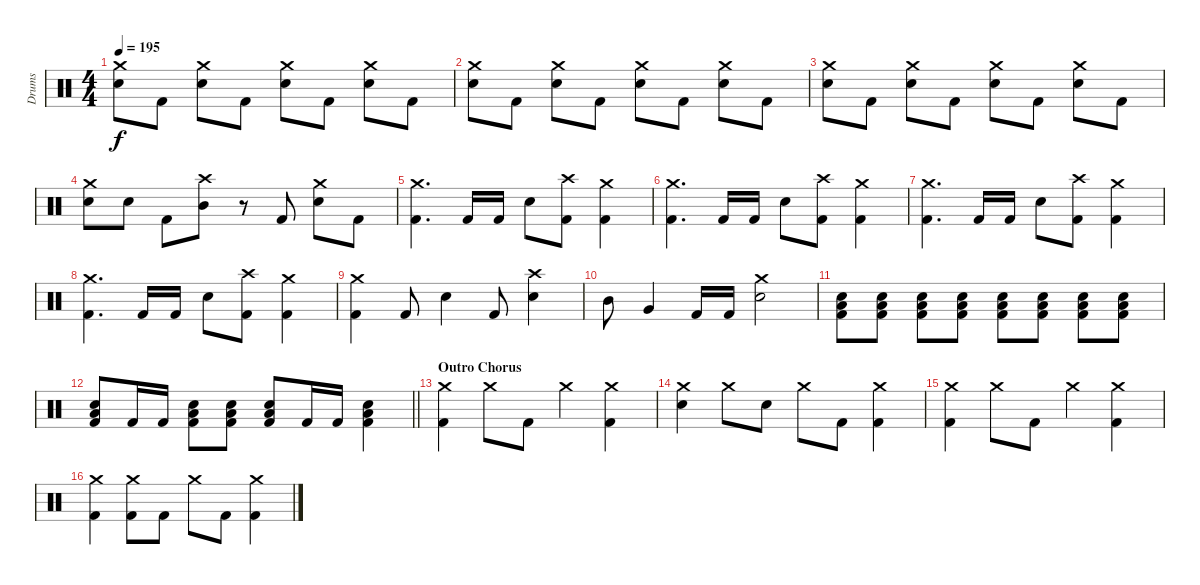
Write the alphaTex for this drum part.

\track ("Drums" "Drums") {instrument percussion}
\staff {score}
\articulation defaults
\ts (4 4)
\tempo 195
\clef neutral
\ks c
("Crash medium (hit)" "Snare (hit) 2").8{dy f} "Kick (hit) 2".8 ("Crash medium (hit)" "Snare (hit) 2").8 "Kick (hit) 2".8 ("Crash medium (hit)" "Snare (hit) 2").8 "Kick (hit) 2".8 ("Crash medium (hit)" "Snare (hit) 2").8 "Kick (hit) 2".8 |
("Crash medium (hit)" "Snare (hit) 2").8 "Kick (hit) 2".8 ("Crash medium (hit)" "Snare (hit) 2").8 "Kick (hit) 2".8 ("Crash medium (hit)" "Snare (hit) 2").8 "Kick (hit) 2".8 ("Crash medium (hit)" "Snare (hit) 2").8 "Kick (hit) 2".8 |
("Crash medium (hit)" "Snare (hit) 2").8 "Kick (hit) 2".8 ("Crash medium (hit)" "Snare (hit) 2").8 "Kick (hit) 2".8 ("Crash medium (hit)" "Snare (hit) 2").8 "Kick (hit) 2".8 ("Crash medium (hit)" "Snare (hit) 2").8 "Kick (hit) 2".8 |
("Crash medium (hit)" "Snare (hit) 2").8 "Snare (hit) 2".8 "Kick (hit) 2".8 ("Crash high (hit)" "Mid Tom (hit)").8 r.8 "Kick (hit) 2".8 ("Crash medium (hit)" "Snare (hit) 2").8 "Kick (hit) 2".8 |
("Crash medium (hit)" "Kick (hit) 2").4{d} "Kick (hit) 2".16 "Kick (hit) 2".16 "Snare (hit) 2".8 ("Crash high (hit)" "Kick (hit) 2").8 ("Crash medium (hit)" "Kick (hit) 2").4 |
("Crash medium (hit)" "Kick (hit) 2").4{d} "Kick (hit) 2".16 "Kick (hit) 2".16 "Snare (hit) 2".8 ("Crash high (hit)" "Kick (hit) 2").8 ("Crash medium (hit)" "Kick (hit) 2").4 |
("Crash medium (hit)" "Kick (hit) 2").4{d} "Kick (hit) 2".16 "Kick (hit) 2".16 "Snare (hit) 2".8 ("Crash high (hit)" "Kick (hit) 2").8 ("Crash medium (hit)" "Kick (hit) 2").4 |
("Crash medium (hit)" "Kick (hit) 2").4{d} "Kick (hit) 2".16 "Kick (hit) 2".16 "Snare (hit) 2".8 ("Crash high (hit)" "Kick (hit) 2").8 ("Crash medium (hit)" "Kick (hit) 2").4 |
("Crash medium (hit)" "Kick (hit) 2").4 "Kick (hit) 2".8 "Snare (hit) 2".4 "Kick (hit) 2".8 ("Crash high (hit)" "Snare (hit) 2").4 |
"Mid Tom (hit)".8 "Very Low Tom (hit)".4 "Kick (hit) 2".16 "Kick (hit) 2".16 ("Crash medium (hit)" "Snare (hit) 2").2 |
("Snare (hit) 2" "Low Floor Tom (hit)" "Kick (hit) 2").8{volume 6} ("Snare (hit) 2" "Low Floor Tom (hit)" "Kick (hit) 2").8{volume 14} ("Snare (hit) 2" "Low Floor Tom (hit)" "Kick (hit) 2").8 ("Snare (hit) 2" "Low Floor Tom (hit)" "Kick (hit) 2").8 ("Snare (hit) 2" "Low Floor Tom (hit)" "Kick (hit) 2").8 ("Snare (hit) 2" "Low Floor Tom (hit)" "Kick (hit) 2").8 ("Snare (hit) 2" "Low Floor Tom (hit)" "Kick (hit) 2").8 ("Snare (hit) 2" "Low Floor Tom (hit)" "Kick (hit) 2").8 |
\barLineRight lightlight
("Snare (hit) 2" "Low Floor Tom (hit)" "Kick (hit) 2").8 "Kick (hit) 2".16 "Kick (hit) 2".16 ("Snare (hit) 2" "Low Floor Tom (hit)" "Kick (hit) 2").8 ("Snare (hit) 2" "Low Floor Tom (hit)" "Kick (hit) 2").8 ("Snare (hit) 2" "Low Floor Tom (hit)" "Kick (hit) 2").8 "Kick (hit) 2".16 "Kick (hit) 2".16 ("Snare (hit) 2" "Low Floor Tom (hit)" "Kick (hit) 2").4 |
\section ("" "Outro Chorus")
("Crash medium (hit)" "Kick (hit) 2").4 "Crash medium (hit)".8 "Kick (hit) 2".8 "Crash medium (hit)".4 ("Crash medium (hit)" "Kick (hit) 2").4 |
("Crash medium (hit)" "Snare (hit) 2").4 "Crash medium (hit)".8 "Snare (hit) 2".8 "Crash medium (hit)".8 "Kick (hit) 2".8 ("Crash medium (hit)" "Kick (hit) 2").4 |
("Crash medium (hit)" "Kick (hit) 2").4 "Crash medium (hit)".8 "Kick (hit) 2".8 "Crash medium (hit)".4 ("Crash medium (hit)" "Kick (hit) 2").4 |
("Crash medium (hit)" "Kick (hit) 2").4 ("Crash medium (hit)" "Kick (hit) 2").8 "Kick (hit) 2".8 "Crash medium (hit)".8 "Kick (hit) 2".8 ("Crash medium (hit)" "Kick (hit) 2").4
